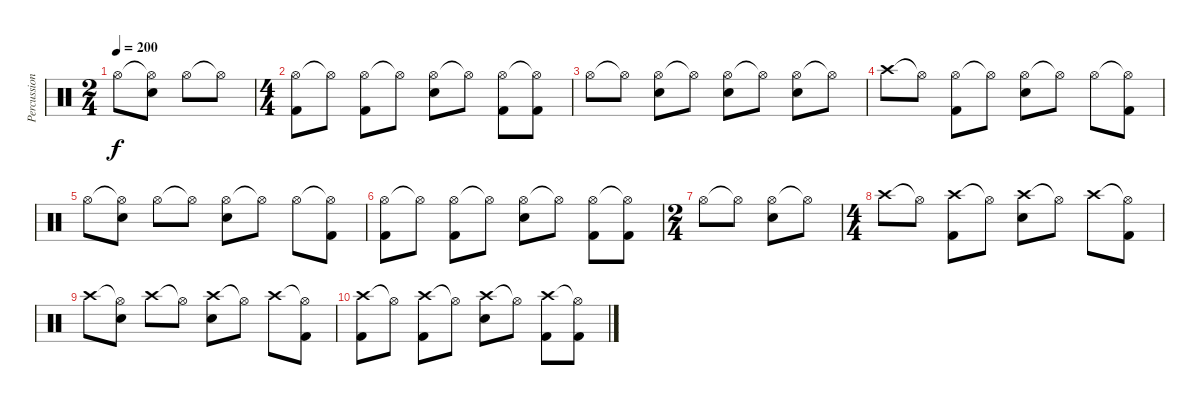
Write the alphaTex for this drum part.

\track ("Percussioni" "Percussion") {instrument percussion}
\staff {score}
\articulation defaults
\ts (2 4)
\tempo 200
\clef neutral
\ks c "Hi-Hat (open)".8{dy f}
("Hi-Hat (open)"{t} "Snare (hit) 2").8 "Hi-Hat (open)".8 "Hi-Hat (open)"{t}.8 |
\ts (4 4)
("Hi-Hat (open)" "Kick (hit) 2").8 "Hi-Hat (open)"{t}.8 ("Hi-Hat (open)" "Kick (hit) 2").8 "Hi-Hat (open)"{t}.8 ("Hi-Hat (open)" "Snare (hit) 2").8 "Hi-Hat (open)"{t}.8 ("Hi-Hat (open)" "Kick (hit) 2").8 ("Hi-Hat (open)"{t} "Kick (hit) 2").8 |
"Hi-Hat (open)".8 "Hi-Hat (open)"{t}.8 ("Hi-Hat (open)" "Snare (hit) 2").8 "Hi-Hat (open)"{t}.8 ("Hi-Hat (open)" "Snare (hit) 2").8 "Hi-Hat (open)"{t}.8 ("Hi-Hat (open)" "Snare (hit) 2").8 "Hi-Hat (open)"{t}.8 |
"Crash high (hit)".8 "Hi-Hat (open)"{t}.8 ("Hi-Hat (open)" "Kick (hit) 2").8 "Hi-Hat (open)"{t}.8 ("Hi-Hat (open)" "Snare (hit) 2").8 "Hi-Hat (open)"{t}.8 "Hi-Hat (open)".8 ("Hi-Hat (open)"{t} "Kick (hit) 2").8 |
"Hi-Hat (open)".8 ("Hi-Hat (open)"{t} "Snare (hit) 2").8 "Hi-Hat (open)".8 "Hi-Hat (open)"{t}.8 ("Hi-Hat (open)" "Snare (hit) 2").8 "Hi-Hat (open)"{t}.8 "Hi-Hat (open)".8 ("Hi-Hat (open)"{t} "Kick (hit) 2").8 |
("Hi-Hat (open)" "Kick (hit) 2").8 "Hi-Hat (open)"{t}.8 ("Hi-Hat (open)" "Kick (hit) 2").8 "Hi-Hat (open)"{t}.8 ("Hi-Hat (open)" "Snare (hit) 2").8 "Hi-Hat (open)"{t}.8 ("Hi-Hat (open)" "Kick (hit) 2").8 ("Hi-Hat (open)"{t} "Kick (hit) 2").8 |
\ts (2 4)
"Hi-Hat (open)".8 "Hi-Hat (open)"{t}.8 ("Hi-Hat (open)" "Snare (hit) 2").8 "Hi-Hat (open)"{t}.8 |
\ts (4 4)
"Crash high (hit)".8 "Hi-Hat (open)"{t}.8 ("Crash high (hit)" "Kick (hit) 2").8 "Hi-Hat (open)"{t}.8 ("Crash high (hit)" "Snare (hit) 2").8 "Hi-Hat (open)"{t}.8 "Crash high (hit)".8 ("Hi-Hat (open)"{t} "Kick (hit) 2").8 |
"Crash high (hit)".8 ("Hi-Hat (open)"{t} "Snare (hit) 2").8 "Crash high (hit)".8 "Hi-Hat (open)"{t}.8 ("Crash high (hit)" "Snare (hit) 2").8 "Hi-Hat (open)"{t}.8 "Crash high (hit)".8 ("Hi-Hat (open)"{t} "Kick (hit) 2").8 |
("Crash high (hit)" "Kick (hit) 2").8 "Hi-Hat (open)"{t}.8 ("Crash high (hit)" "Kick (hit) 2").8 "Hi-Hat (open)"{t}.8 ("Crash high (hit)" "Snare (hit) 2").8 "Hi-Hat (open)"{t}.8 ("Crash high (hit)" "Kick (hit) 2").8 ("Hi-Hat (open)"{t} "Kick (hit) 2").8
